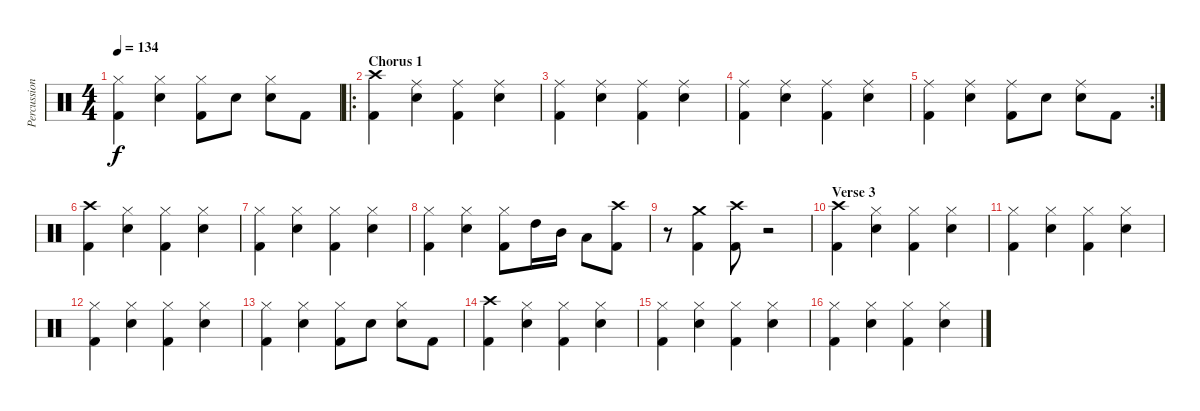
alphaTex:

\track ("Percussion" "Percussion") {instrument percussion}
\staff {score}
\articulation defaults
\ts (4 4)
\tempo 134
\clef neutral
\ks c
("Kick (hit) 2" "Hi-Hat (closed)").4{dy f} ("Snare (hit) 2" "Hi-Hat (closed)").4 ("Kick (hit) 2" "Hi-Hat (closed)").8 "Snare (hit) 2".8 ("Snare (hit) 2" "Hi-Hat (closed)").8 "Kick (hit) 2".8 |
\ro
\section ("" "Chorus 1")
("Kick (hit) 2" "Crash high (hit)").4 ("Snare (hit) 2" "Ride (middle)").4 ("Kick (hit) 2" "Ride (middle)").4 ("Snare (hit) 2" "Ride (middle)").4 |
("Kick (hit) 2" "Ride (middle)").4 ("Snare (hit) 2" "Ride (middle)").4 ("Kick (hit) 2" "Ride (middle)").4 ("Snare (hit) 2" "Ride (middle)").4 |
("Kick (hit) 2" "Ride (middle)").4 ("Snare (hit) 2" "Ride (middle)").4 ("Kick (hit) 2" "Ride (middle)").4 ("Snare (hit) 2" "Ride (middle)").4 |
\rc 2
("Kick (hit) 2" "Ride (middle)").4 ("Snare (hit) 2" "Ride (middle)").4 ("Kick (hit) 2" "Ride (middle)").8 "Snare (hit) 2".8 ("Snare (hit) 2" "Ride (middle)").8 "Kick (hit) 2".8 |
("Kick (hit) 2" "Crash high (hit)").4 ("Snare (hit) 2" "Hi-Hat (closed)").4 ("Kick (hit) 2" "Hi-Hat (closed)").4 ("Snare (hit) 2" "Hi-Hat (closed)").4 |
("Kick (hit) 2" "Hi-Hat (closed)").4 ("Snare (hit) 2" "Hi-Hat (closed)").4 ("Kick (hit) 2" "Hi-Hat (closed)").4 ("Snare (hit) 2" "Hi-Hat (closed)").4 |
("Kick (hit) 2" "Hi-Hat (closed)").4 ("Snare (hit) 2" "Hi-Hat (closed)").4 ("Kick (hit) 2" "Hi-Hat (closed)").8 "High Tom (hit)".16 "Mid Tom (hit)".16 "Low Tom (hit)".8 ("Kick (hit) 2" "Crash high (hit)").8 |
r.8 ("Kick (hit) 2" "Crash medium (hit)").4 ("Kick (hit) 2" "Crash high (hit)").8 r.2 |
\section ("" "Verse 3")
("Kick (hit) 2" "Crash high (hit)").4 ("Snare (hit) 2" "Hi-Hat (closed)").4 ("Kick (hit) 2" "Hi-Hat (closed)").4 ("Snare (hit) 2" "Hi-Hat (closed)").4 |
("Kick (hit) 2" "Hi-Hat (closed)").4 ("Snare (hit) 2" "Hi-Hat (closed)").4 ("Kick (hit) 2" "Hi-Hat (closed)").4 ("Snare (hit) 2" "Hi-Hat (closed)").4 |
("Kick (hit) 2" "Hi-Hat (closed)").4 ("Snare (hit) 2" "Hi-Hat (closed)").4 ("Kick (hit) 2" "Hi-Hat (closed)").4 ("Snare (hit) 2" "Hi-Hat (closed)").4 |
("Kick (hit) 2" "Hi-Hat (closed)").4 ("Snare (hit) 2" "Hi-Hat (closed)").4 ("Kick (hit) 2" "Hi-Hat (closed)").8 "Snare (hit) 2".8 ("Snare (hit) 2" "Hi-Hat (closed)").8 "Kick (hit) 2".8 |
("Kick (hit) 2" "Crash high (hit)").4 ("Snare (hit) 2" "Hi-Hat (closed)").4 ("Kick (hit) 2" "Hi-Hat (closed)").4 ("Snare (hit) 2" "Hi-Hat (closed)").4 |
("Kick (hit) 2" "Hi-Hat (closed)").4 ("Snare (hit) 2" "Hi-Hat (closed)").4 ("Kick (hit) 2" "Hi-Hat (closed)").4 ("Snare (hit) 2" "Hi-Hat (closed)").4 |
("Kick (hit) 2" "Hi-Hat (closed)").4 ("Snare (hit) 2" "Hi-Hat (closed)").4 ("Kick (hit) 2" "Hi-Hat (closed)").4 ("Snare (hit) 2" "Hi-Hat (closed)").4
